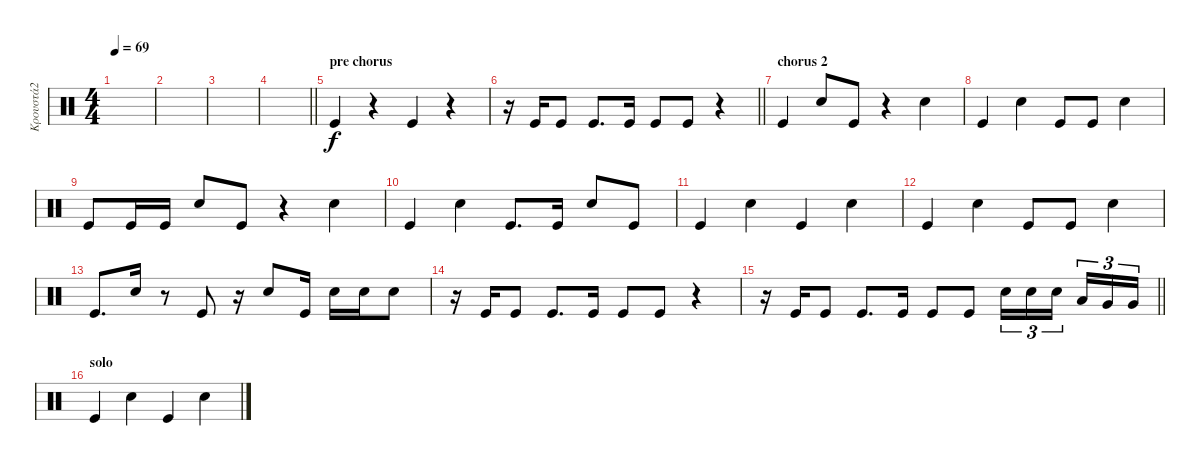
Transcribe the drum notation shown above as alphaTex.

\track ("Κρουστά2" "Κρουστά2") {instrument percussion}
\staff {score}
\articulation defaults
\ts (4 4)
\tempo 69
\clef neutral
\ks c
|
|
|
\barLineRight lightlight
|
\section ("" "pre chorus")
"Kick (hit)".4 r.4 "Kick (hit)".4 r.4 |
\barLineRight lightlight
r.16 "Kick (hit)".16 "Kick (hit)".8 "Kick (hit)".8{d} "Kick (hit)".16 "Kick (hit)".8 "Kick (hit)".8 r.4 |
\section ("" "chorus 2")
"Kick (hit)".4 "Snare (hit) 2".8 "Kick (hit)".8 r.4 "Snare (hit) 2".4 |
"Kick (hit)".4 "Snare (hit) 2".4 "Kick (hit)".8 "Kick (hit)".8 "Snare (hit) 2".4 |
"Kick (hit)".8 "Kick (hit)".16 "Kick (hit)".16 "Snare (hit) 2".8 "Kick (hit)".8 r.4 "Snare (hit) 2".4 |
"Kick (hit)".4 "Snare (hit) 2".4 "Kick (hit)".8{d} "Kick (hit)".16 "Snare (hit) 2".8 "Kick (hit)".8 |
"Kick (hit)".4 "Snare (hit) 2".4 "Kick (hit)".4 "Snare (hit) 2".4 |
"Kick (hit)".4 "Snare (hit) 2".4 "Kick (hit)".8 "Kick (hit)".8 "Snare (hit) 2".4 |
"Kick (hit)".8{d} "Snare (hit) 2".16 r.8 "Kick (hit)".8 r.16 "Snare (hit) 2".8 "Kick (hit)".16 "Snare (hit) 2".16 "Snare (hit) 2".16 "Snare (hit) 2".8 |
r.16 "Kick (hit)".16 "Kick (hit)".8 "Kick (hit)".8{d} "Kick (hit)".16 "Kick (hit)".8 "Kick (hit)".8 r.4 |
\barLineRight lightlight
r.16 "Kick (hit)".16 "Kick (hit)".8 "Kick (hit)".8{d} "Kick (hit)".16 "Kick (hit)".8 "Kick (hit)".8 "Snare (hit) 2".16{tu (3 2)} "Snare (hit) 2".16{tu (3 2)} "Snare (hit) 2".16{tu (3 2) beam splitsecondary} "Low Tom (hit)".16{tu (3 2)} "Very Low Tom (hit)".16{tu (3 2)} "Very Low Tom (hit)".16{tu (3 2)} |
\section ("" "solo")
"Kick (hit)".4 "Snare (hit) 2".4 "Kick (hit)".4 "Snare (hit) 2".4
